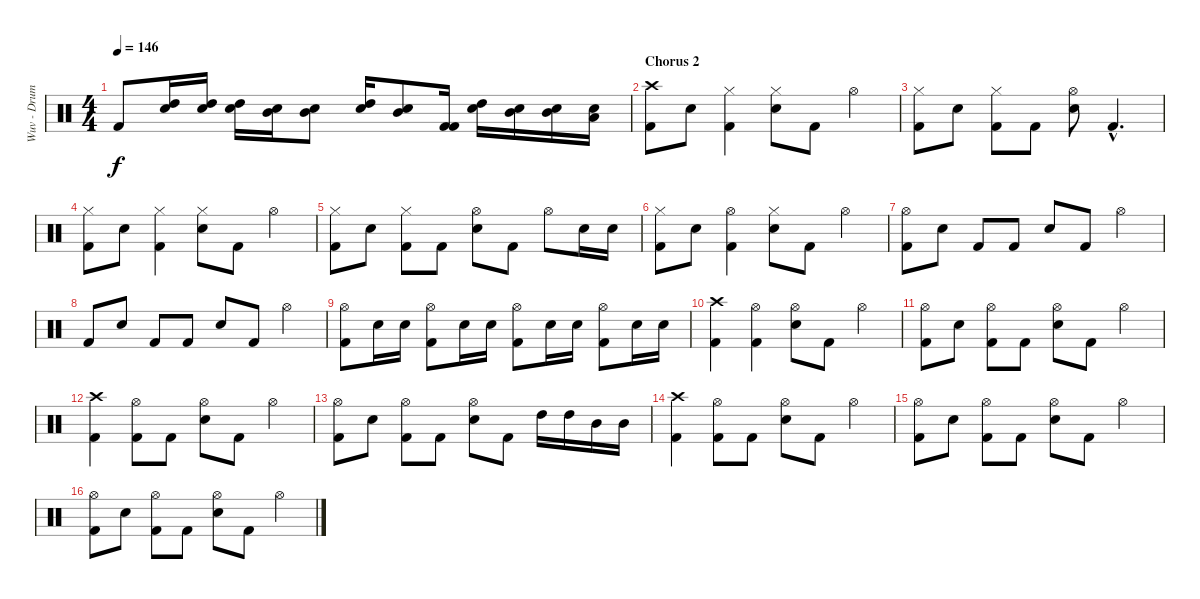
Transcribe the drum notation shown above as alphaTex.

\track ("Wuv - Drums" "Wuv - Drum") {instrument percussion}
\staff {score}
\articulation defaults
\ts (4 4)
\tempo 146
\clef neutral
\ks c "Kick (hit) 2".8{dy f}
("High Tom (hit)" "Electric Snare (hit)").16 ("High Tom (hit)" "Electric Snare (hit)").16 ("High Tom (hit)" "Electric Snare (hit)").16 ("Mid Tom (hit)" "Electric Snare (hit)").16 ("Mid Tom (hit)" "Electric Snare (hit)").8 ("High Tom (hit)" "Electric Snare (hit)").16 ("Mid Tom (hit)" "Electric Snare (hit)").8 ("Kick (hit) 2" "Kick (hit) 2").16 ("High Tom (hit)" "Electric Snare (hit)").16 ("Mid Tom (hit)" "Electric Snare (hit)").16 ("Mid Tom (hit)" "Electric Snare (hit)").16 ("Low Tom (hit)" "Electric Snare (hit)").16 |
\section ("" "Chorus 2")
("Crash high (hit)" "Kick (hit) 2").8 "Electric Snare (hit)".8 ("Hi-Hat (closed)" "Kick (hit) 2").4 ("Hi-Hat (closed)" "Electric Snare (hit)").8 "Kick (hit) 2".8 "Hi-Hat (open)".4 |
("Hi-Hat (closed)" "Kick (hit) 2").8 "Electric Snare (hit)".8 ("Hi-Hat (closed)" "Kick (hit) 2").8 "Kick (hit) 2".8 ("Hi-Hat (open)" "Electric Snare (hit)").8 "Kick (hit) 2"{hac}.4{d} |
("Hi-Hat (closed)" "Kick (hit) 2").8 "Electric Snare (hit)".8 ("Hi-Hat (closed)" "Kick (hit) 2").4 ("Hi-Hat (closed)" "Electric Snare (hit)").8 "Kick (hit) 2".8 "Hi-Hat (open)".4 |
("Hi-Hat (closed)" "Kick (hit) 2").8 "Electric Snare (hit)".8 ("Hi-Hat (closed)" "Kick (hit) 2").8 "Kick (hit) 2".8 ("Hi-Hat (open)" "Electric Snare (hit)").8 "Kick (hit) 2".8 "Hi-Hat (open)".8 "Electric Snare (hit)".16 "Electric Snare (hit)".16 |
("Hi-Hat (closed)" "Kick (hit) 2").8 "Electric Snare (hit)".8 ("Hi-Hat (open)" "Kick (hit) 2").4 ("Hi-Hat (closed)" "Electric Snare (hit)").8 "Kick (hit) 2".8 "Hi-Hat (open)".4 |
("Hi-Hat (open)" "Kick (hit) 2").8 "Electric Snare (hit)".8 "Kick (hit) 2".8 "Kick (hit) 2".8 "Electric Snare (hit)".8 "Kick (hit) 2".8 "Hi-Hat (open)".4 |
"Kick (hit) 2".8 "Electric Snare (hit)".8 "Kick (hit) 2".8 "Kick (hit) 2".8 "Electric Snare (hit)".8 "Kick (hit) 2".8 "Hi-Hat (open)".4 |
("Hi-Hat (open)" "Kick (hit) 2").8 "Electric Snare (hit)".16 "Electric Snare (hit)".16 ("Hi-Hat (open)" "Kick (hit) 2").8 "Electric Snare (hit)".16 "Electric Snare (hit)".16 ("Hi-Hat (open)" "Kick (hit) 2").8 "Electric Snare (hit)".16 "Electric Snare (hit)".16 ("Hi-Hat (open)" "Kick (hit) 2").8 "Electric Snare (hit)".16 "Electric Snare (hit)".16 |
("Crash high (hit)" "Kick (hit) 2").4 ("Hi-Hat (open)" "Kick (hit) 2").4 ("Hi-Hat (open)" "Electric Snare (hit)").8 "Kick (hit) 2".8 "Hi-Hat (open)".4 |
("Hi-Hat (open)" "Kick (hit) 2").8 "Electric Snare (hit)".8 ("Hi-Hat (open)" "Kick (hit) 2").8 "Kick (hit) 2".8 ("Hi-Hat (open)" "Electric Snare (hit)").8 "Kick (hit) 2".8 "Hi-Hat (open)".4 |
("Crash high (hit)" "Kick (hit) 2").4 ("Hi-Hat (open)" "Kick (hit) 2").8 "Kick (hit) 2".8 ("Hi-Hat (open)" "Electric Snare (hit)").8 "Kick (hit) 2".8 "Hi-Hat (open)".4 |
("Hi-Hat (open)" "Kick (hit) 2").8 "Electric Snare (hit)".8 ("Hi-Hat (open)" "Kick (hit) 2").8 "Kick (hit) 2".8 ("Hi-Hat (open)" "Electric Snare (hit)").8 "Kick (hit) 2".8 "High Tom (hit)".16 "High Tom (hit)".16 "Mid Tom (hit)".16 "Mid Tom (hit)".16 |
("Crash high (hit)" "Kick (hit) 2").4 ("Hi-Hat (open)" "Kick (hit) 2").8 "Kick (hit) 2".8 ("Hi-Hat (open)" "Electric Snare (hit)").8 "Kick (hit) 2".8 "Hi-Hat (open)".4 |
("Hi-Hat (open)" "Kick (hit) 2").8 "Electric Snare (hit)".8 ("Hi-Hat (open)" "Kick (hit) 2").8 "Kick (hit) 2".8 ("Hi-Hat (open)" "Electric Snare (hit)").8 "Kick (hit) 2".8 "Hi-Hat (open)".4 |
("Hi-Hat (open)" "Kick (hit) 2").8 "Electric Snare (hit)".8 ("Hi-Hat (open)" "Kick (hit) 2").8 "Kick (hit) 2".8 ("Hi-Hat (open)" "Electric Snare (hit)").8 "Kick (hit) 2".8 "Hi-Hat (open)".4
